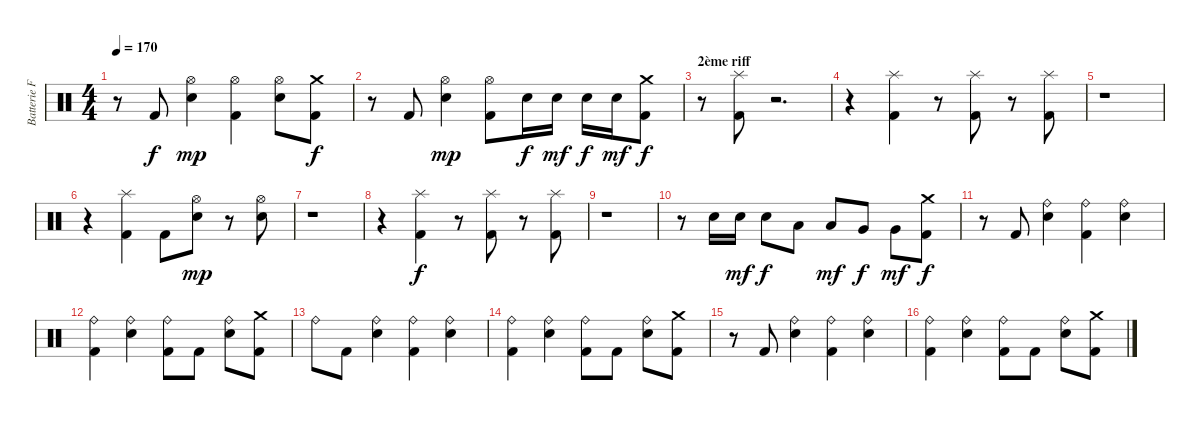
\track ("Batterie Franck" "Batterie F") {instrument percussion}
\staff {score}
\articulation defaults
\ts (4 4)
\tempo 170
\clef neutral
\ks c
r.8{dy f} "Kick (hit) 2".8 ("Hi-Hat (open)" "Snare (hit) 2").4{dy mp} ("Hi-Hat (open)" "Kick (hit) 2").4 ("Hi-Hat (open)" "Snare (hit) 2").8 ("Crash medium (hit)" "Kick (hit) 2").8{dy f} |
r.8 "Kick (hit) 2".8 ("Hi-Hat (open)" "Snare (hit) 2").4{dy mp} ("Hi-Hat (open)" "Kick (hit) 2").8 "Snare (hit) 2".16{dy f} "Snare (hit) 2".16{dy mf} "Snare (hit) 2".16{dy f} "Snare (hit) 2".16{dy mf} ("Crash medium (hit)" "Kick (hit) 2").8{dy f} |
\section ("" "2ème riff")
r.8 ("Splash (hit)" "Kick (hit) 2").8 r.2{d} |
r.4 ("Splash (hit)" "Kick (hit) 2").4 r.8 ("Splash (hit)" "Kick (hit) 2").8 r.8 ("Splash (hit)" "Kick (hit) 2").8 |
r.1 |
r.4 ("Splash (hit)" "Kick (hit) 2").4 "Kick (hit) 2".8 ("Hi-Hat (open)" "Snare (hit) 2").8{dy mp} r.8 ("Hi-Hat (open)" "Snare (hit) 2").8 |
r.1 |
r.4 ("Splash (hit)" "Kick (hit) 2").4{dy f} r.8 ("Splash (hit)" "Kick (hit) 2").8 r.8 ("Splash (hit)" "Kick (hit) 2").8 |
r.1 |
r.8 "Snare (hit) 2".16 "Snare (hit) 2".16{dy mf} "Snare (hit) 2".8{dy f} "Low Tom (hit)".8 "Low Tom (hit)".8{dy mf} "Very Low Tom (hit)".8{dy f} "Very Low Tom (hit)".8{dy mf} ("Crash medium (hit)" "Kick (hit) 2").8{dy f} |
r.8 "Kick (hit) 2".8 ("Ride (bell)" "Snare (hit) 2").4 ("Ride (bell)" "Kick (hit) 2").4 ("Ride (bell)" "Snare (hit) 2").4 |
("Ride (bell)" "Kick (hit) 2").4 ("Ride (bell)" "Snare (hit) 2").4 ("Ride (bell)" "Kick (hit) 2").8 "Kick (hit) 2".8 ("Ride (bell)" "Snare (hit) 2").8 ("Crash medium (hit)" "Kick (hit) 2").8 |
"Ride (bell)".8 "Kick (hit) 2".8 ("Ride (bell)" "Snare (hit) 2").4 ("Ride (bell)" "Kick (hit) 2").4 ("Ride (bell)" "Snare (hit) 2").4 |
("Ride (bell)" "Kick (hit) 2").4 ("Ride (bell)" "Snare (hit) 2").4 ("Ride (bell)" "Kick (hit) 2").8 "Kick (hit) 2".8 ("Ride (bell)" "Snare (hit) 2").8 ("Crash medium (hit)" "Kick (hit) 2").8 |
r.8 "Kick (hit) 2".8 ("Ride (bell)" "Snare (hit) 2").4 ("Ride (bell)" "Kick (hit) 2").4 ("Ride (bell)" "Snare (hit) 2").4 |
("Ride (bell)" "Kick (hit) 2").4 ("Ride (bell)" "Snare (hit) 2").4 ("Ride (bell)" "Kick (hit) 2").8 "Kick (hit) 2".8 ("Ride (bell)" "Snare (hit) 2").8 ("Crash medium (hit)" "Kick (hit) 2").8
